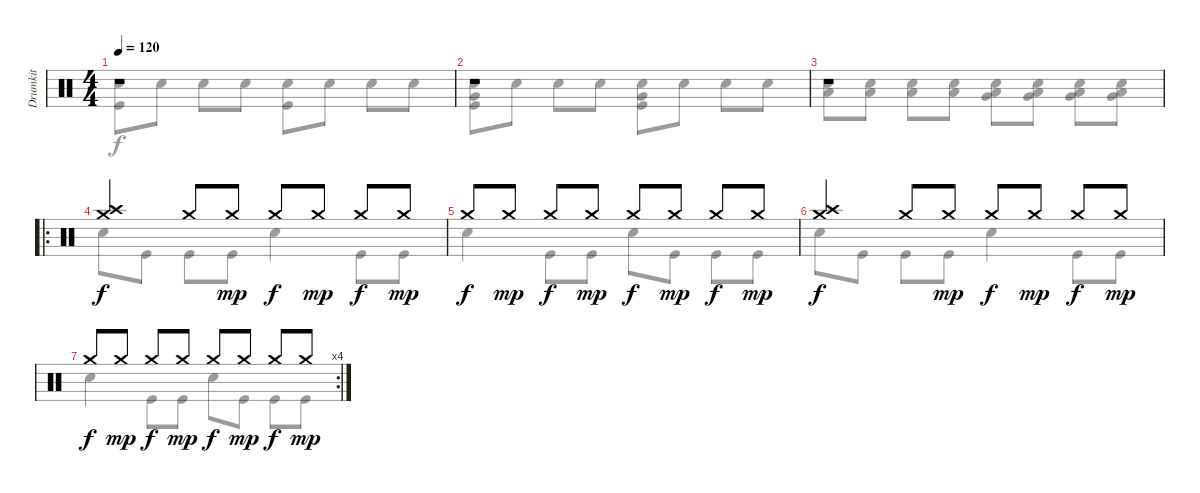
\track ("Drumkit" "Drumkit") {instrument percussion}
\staff {score}
\articulation defaults
\voice
\ts (4 4)
\tempo 120
\clef neutral
\ks c
r.1{dy f} |
r.1 |
r.1 |
\ro
("Crash medium (hit)" "Crash high (hit)").4 "Crash medium (hit)".8 "Crash medium (hit)".8{dy mp} "Crash medium (hit)".8{dy f} "Crash medium (hit)".8{dy mp} "Crash medium (hit)".8{dy f} "Crash medium (hit)".8{dy mp} |
"Crash medium (hit)".8{dy f} "Crash medium (hit)".8{dy mp} "Crash medium (hit)".8{dy f} "Crash medium (hit)".8{dy mp} "Crash medium (hit)".8{dy f} "Crash medium (hit)".8{dy mp} "Crash medium (hit)".8{dy f} "Crash medium (hit)".8{dy mp} |
("Crash medium (hit)" "Crash high (hit)").4{dy f} "Crash medium (hit)".8 "Crash medium (hit)".8{dy mp} "Crash medium (hit)".8{dy f} "Crash medium (hit)".8{dy mp} "Crash medium (hit)".8{dy f} "Crash medium (hit)".8{dy mp} |
\rc 4 "Crash medium (hit)".8{dy f} "Crash medium (hit)".8{dy mp} "Crash medium (hit)".8{dy f} "Crash medium (hit)".8{dy mp} "Crash medium (hit)".8{dy f} "Crash medium (hit)".8{dy mp} "Crash medium (hit)".8{dy f} "Crash medium (hit)".8{dy mp}
\voice
\clef neutral
\ottava regular
\simile none
\ks c
("Snare (hit) 2" "Kick (hit)").8{dy f} "Snare (hit) 2".8 "Snare (hit) 2".8 "Snare (hit) 2".8 ("Snare (hit) 2" "Kick (hit)").8 "Snare (hit) 2".8 "Snare (hit) 2".8 "Snare (hit) 2".8 |
("Very Low Tom (hit)" "Snare (hit) 2" "Kick (hit)").8 "Snare (hit) 2".8 "Snare (hit) 2".8 "Snare (hit) 2".8 ("Very Low Tom (hit)" "Snare (hit) 2" "Kick (hit)").8 "Snare (hit) 2".8 "Snare (hit) 2".8 "Snare (hit) 2".8 |
("Low Floor Tom (hit)" "Snare (hit) 2").8 ("Low Floor Tom (hit)" "Snare (hit) 2").8 ("Low Floor Tom (hit)" "Snare (hit) 2").8 ("Low Floor Tom (hit)" "Snare (hit) 2").8 ("Very Low Tom (hit)" "Snare (hit) 2" "Low Floor Tom (hit)").8 ("Very Low Tom (hit)" "Snare (hit) 2" "Low Floor Tom (hit)").8 ("Very Low Tom (hit)" "Snare (hit) 2" "Low Floor Tom (hit)").8 ("Very Low Tom (hit)" "Snare (hit) 2" "Low Floor Tom (hit)").8 |
"Snare (hit) 2".8 "Kick (hit)".8 "Kick (hit)".8 "Kick (hit)".8 "Snare (hit) 2".4 "Kick (hit)".8 "Kick (hit)".8 |
"Snare (hit) 2".4 "Kick (hit)".8 "Kick (hit)".8 "Snare (hit) 2".8 "Kick (hit)".8 "Kick (hit)".8 "Kick (hit)".8 |
"Snare (hit) 2".8 "Kick (hit)".8 "Kick (hit)".8 "Kick (hit)".8 "Snare (hit) 2".4 "Kick (hit)".8 "Kick (hit)".8 |
"Snare (hit) 2".4 "Kick (hit)".8 "Kick (hit)".8 "Snare (hit) 2".8 "Kick (hit)".8 "Kick (hit)".8 "Kick (hit)".8
